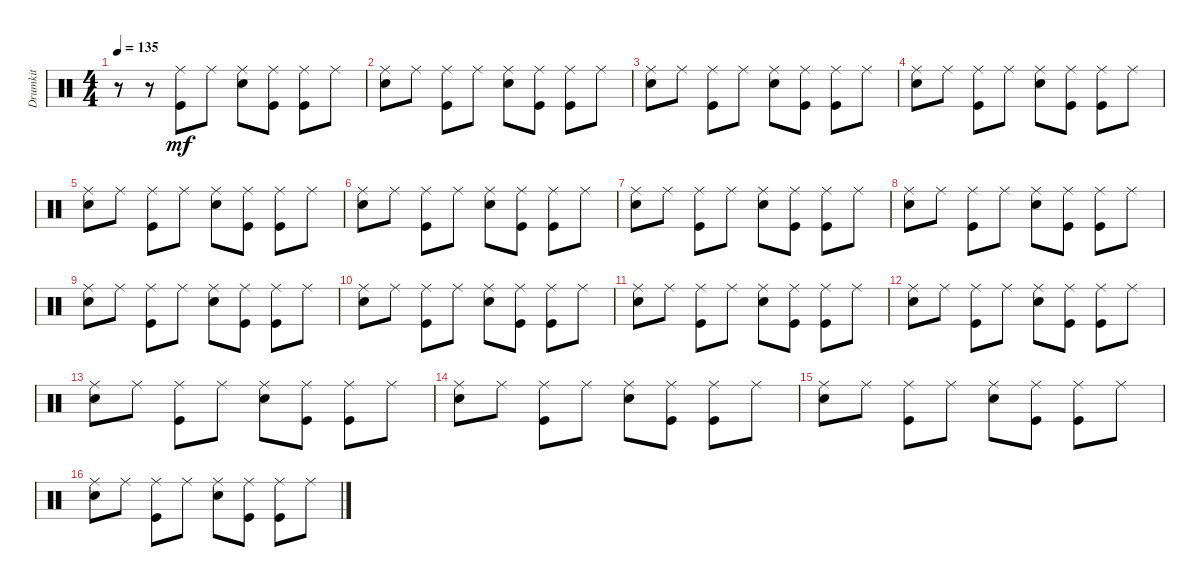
\track ("Drumkit" "Drumkit") {instrument percussion}
\staff {score}
\articulation defaults
\ts (4 4)
\tempo 135
\clef neutral
\ks c
r.8{dy mf} r.8 ("Kick (hit)" "Ride (middle)").8 "Ride (middle)".8 ("Snare (hit) 2" "Ride (middle)").8 ("Kick (hit)" "Ride (middle)").8 ("Kick (hit)" "Ride (middle)").8 "Ride (middle)".8 |
("Snare (hit) 2" "Ride (middle)").8 "Ride (middle)".8 ("Kick (hit)" "Ride (middle)").8 "Ride (middle)".8 ("Snare (hit) 2" "Ride (middle)").8 ("Kick (hit)" "Ride (middle)").8 ("Kick (hit)" "Ride (middle)").8 "Ride (middle)".8 |
("Snare (hit) 2" "Ride (middle)").8 "Ride (middle)".8 ("Kick (hit)" "Ride (middle)").8 "Ride (middle)".8 ("Snare (hit) 2" "Ride (middle)").8 ("Kick (hit)" "Ride (middle)").8 ("Kick (hit)" "Ride (middle)").8 "Ride (middle)".8 |
("Snare (hit) 2" "Ride (middle)").8 "Ride (middle)".8 ("Kick (hit)" "Ride (middle)").8 "Ride (middle)".8 ("Snare (hit) 2" "Ride (middle)").8 ("Kick (hit)" "Ride (middle)").8 ("Kick (hit)" "Ride (middle)").8 "Ride (middle)".8 |
("Snare (hit) 2" "Ride (middle)").8 "Ride (middle)".8 ("Kick (hit)" "Ride (middle)").8 "Ride (middle)".8 ("Snare (hit) 2" "Ride (middle)").8 ("Kick (hit)" "Ride (middle)").8 ("Kick (hit)" "Ride (middle)").8 "Ride (middle)".8 |
("Snare (hit) 2" "Ride (middle)").8 "Ride (middle)".8 ("Kick (hit)" "Ride (middle)").8 "Ride (middle)".8 ("Snare (hit) 2" "Ride (middle)").8 ("Kick (hit)" "Ride (middle)").8 ("Kick (hit)" "Ride (middle)").8 "Ride (middle)".8 |
("Snare (hit) 2" "Ride (middle)").8 "Ride (middle)".8 ("Kick (hit)" "Ride (middle)").8 "Ride (middle)".8 ("Snare (hit) 2" "Ride (middle)").8 ("Kick (hit)" "Ride (middle)").8 ("Kick (hit)" "Ride (middle)").8 "Ride (middle)".8 |
("Snare (hit) 2" "Ride (middle)").8 "Ride (middle)".8 ("Kick (hit)" "Ride (middle)").8 "Ride (middle)".8 ("Snare (hit) 2" "Ride (middle)").8 ("Kick (hit)" "Ride (middle)").8 ("Kick (hit)" "Ride (middle)").8 "Ride (middle)".8 |
("Snare (hit) 2" "Ride (middle)").8 "Ride (middle)".8 ("Kick (hit)" "Ride (middle)").8 "Ride (middle)".8 ("Snare (hit) 2" "Ride (middle)").8 ("Kick (hit)" "Ride (middle)").8 ("Kick (hit)" "Ride (middle)").8 "Ride (middle)".8 |
("Snare (hit) 2" "Ride (middle)").8 "Ride (middle)".8 ("Kick (hit)" "Ride (middle)").8 "Ride (middle)".8 ("Snare (hit) 2" "Ride (middle)").8 ("Kick (hit)" "Ride (middle)").8 ("Kick (hit)" "Ride (middle)").8 "Ride (middle)".8 |
("Snare (hit) 2" "Ride (middle)").8 "Ride (middle)".8 ("Kick (hit)" "Ride (middle)").8 "Ride (middle)".8 ("Snare (hit) 2" "Ride (middle)").8 ("Kick (hit)" "Ride (middle)").8 ("Kick (hit)" "Ride (middle)").8 "Ride (middle)".8 |
("Snare (hit) 2" "Ride (middle)").8 "Ride (middle)".8 ("Kick (hit)" "Ride (middle)").8 "Ride (middle)".8 ("Snare (hit) 2" "Ride (middle)").8 ("Kick (hit)" "Ride (middle)").8 ("Kick (hit)" "Ride (middle)").8 "Ride (middle)".8 |
("Snare (hit) 2" "Ride (middle)").8 "Ride (middle)".8 ("Kick (hit)" "Ride (middle)").8 "Ride (middle)".8 ("Snare (hit) 2" "Ride (middle)").8 ("Kick (hit)" "Ride (middle)").8 ("Kick (hit)" "Ride (middle)").8 "Ride (middle)".8 |
("Snare (hit) 2" "Ride (middle)").8 "Ride (middle)".8 ("Kick (hit)" "Ride (middle)").8 "Ride (middle)".8 ("Snare (hit) 2" "Ride (middle)").8 ("Kick (hit)" "Ride (middle)").8 ("Kick (hit)" "Ride (middle)").8 "Ride (middle)".8 |
("Snare (hit) 2" "Ride (middle)").8 "Ride (middle)".8 ("Kick (hit)" "Ride (middle)").8 "Ride (middle)".8 ("Snare (hit) 2" "Ride (middle)").8 ("Kick (hit)" "Ride (middle)").8 ("Kick (hit)" "Ride (middle)").8 "Ride (middle)".8 |
("Snare (hit) 2" "Ride (middle)").8 "Ride (middle)".8 ("Kick (hit)" "Ride (middle)").8 "Ride (middle)".8 ("Snare (hit) 2" "Ride (middle)").8 ("Kick (hit)" "Ride (middle)").8 ("Kick (hit)" "Ride (middle)").8 "Ride (middle)".8
